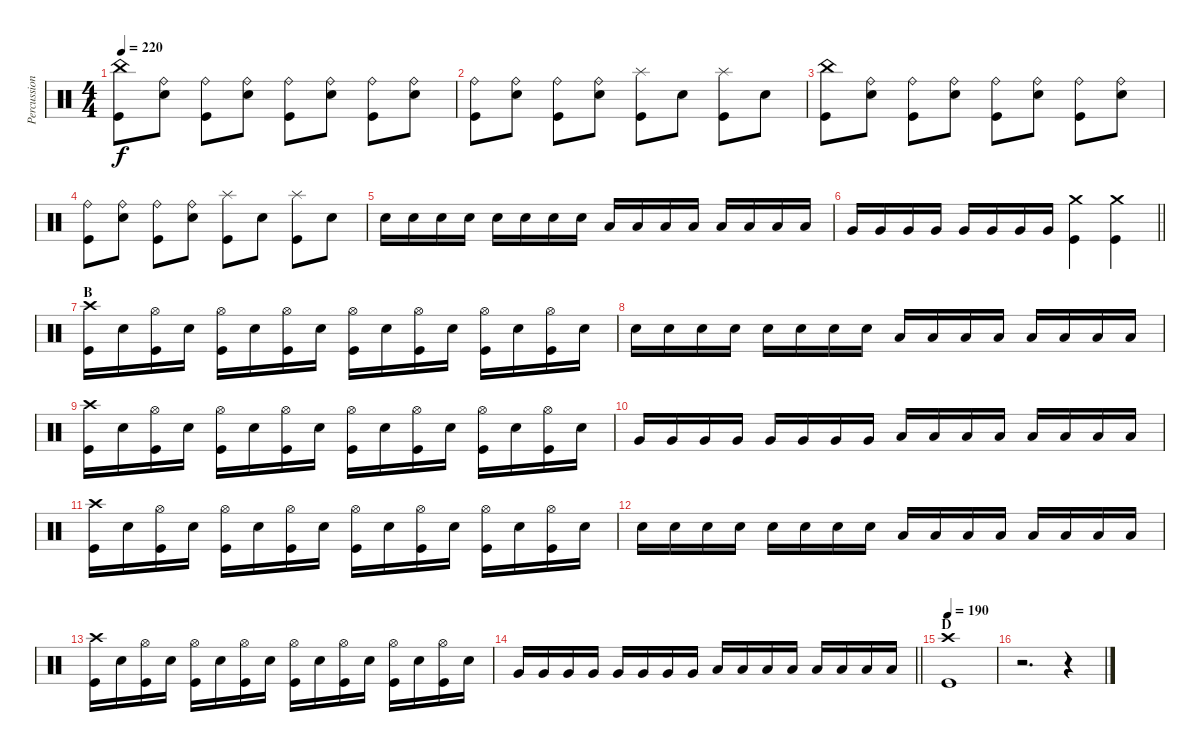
\track ("Percussion" "Percussion") {instrument percussion}
\staff {score}
\articulation defaults
\ts (4 4)
\tempo 220
\clef neutral
\ks c
("China (hit)" "Kick (hit)").8{dy f} ("Ride (bell)" "Snare (hit) 2").8 ("Ride (bell)" "Kick (hit)").8 ("Ride (bell)" "Snare (hit) 2").8 ("Ride (bell)" "Kick (hit)").8 ("Ride (bell)" "Snare (hit) 2").8 ("Ride (bell)" "Kick (hit)").8 ("Ride (bell)" "Snare (hit) 2").8 |
("Ride (bell)" "Kick (hit)").8 ("Ride (bell)" "Snare (hit) 2").8 ("Ride (bell)" "Kick (hit)").8 ("Ride (bell)" "Snare (hit) 2").8 ("Splash (hit)" "Kick (hit)").8 "Snare (hit) 2".8 ("Splash (hit)" "Kick (hit)").8 "Snare (hit) 2".8 |
("China (hit)" "Kick (hit)").8 ("Ride (bell)" "Snare (hit) 2").8 ("Ride (bell)" "Kick (hit)").8 ("Ride (bell)" "Snare (hit) 2").8 ("Ride (bell)" "Kick (hit)").8 ("Ride (bell)" "Snare (hit) 2").8 ("Ride (bell)" "Kick (hit)").8 ("Ride (bell)" "Snare (hit) 2").8 |
("Ride (bell)" "Kick (hit)").8 ("Ride (bell)" "Snare (hit) 2").8 ("Ride (bell)" "Kick (hit)").8 ("Ride (bell)" "Snare (hit) 2").8 ("Splash (hit)" "Kick (hit)").8 "Snare (hit) 2".8 ("Splash (hit)" "Kick (hit)").8 "Snare (hit) 2".8 |
"Snare (hit) 2".16 "Snare (hit) 2".16 "Snare (hit) 2".16 "Snare (hit) 2".16 "Snare (hit) 2".16 "Snare (hit) 2".16 "Snare (hit) 2".16 "Snare (hit) 2".16 "Low Tom (hit)".16 "Low Tom (hit)".16 "Low Tom (hit)".16 "Low Tom (hit)".16 "Low Tom (hit)".16 "Low Tom (hit)".16 "Low Tom (hit)".16 "Low Tom (hit)".16 |
\barLineRight lightlight "Very Low Tom (hit)".16 "Very Low Tom (hit)".16 "Very Low Tom (hit)".16 "Very Low Tom (hit)".16 "Very Low Tom (hit)".16 "Very Low Tom (hit)".16 "Very Low Tom (hit)".16 "Very Low Tom (hit)".16
("Crash medium (hit)" "Kick (hit)").4 ("Crash medium (hit)" "Kick (hit)").4 |
\section ("" "B")
("Crash high (hit)" "Kick (hit)").16 "Snare (hit) 2".16 ("Hi-Hat (open)" "Kick (hit)").16 "Snare (hit) 2".16 ("Hi-Hat (open)" "Kick (hit)").16 "Snare (hit) 2".16 ("Hi-Hat (open)" "Kick (hit)").16 "Snare (hit) 2".16 ("Hi-Hat (open)" "Kick (hit)").16 "Snare (hit) 2".16 ("Hi-Hat (open)" "Kick (hit)").16 "Snare (hit) 2".16 ("Hi-Hat (open)" "Kick (hit)").16 "Snare (hit) 2".16 ("Hi-Hat (open)" "Kick (hit)").16 "Snare (hit) 2".16 |
"Snare (hit) 2".16 "Snare (hit) 2".16 "Snare (hit) 2".16 "Snare (hit) 2".16 "Snare (hit) 2".16 "Snare (hit) 2".16 "Snare (hit) 2".16 "Snare (hit) 2".16 "Low Tom (hit)".16 "Low Tom (hit)".16 "Low Tom (hit)".16 "Low Tom (hit)".16 "Low Tom (hit)".16 "Low Tom (hit)".16 "Low Tom (hit)".16 "Low Tom (hit)".16 |
("Crash high (hit)" "Kick (hit)").16 "Snare (hit) 2".16 ("Hi-Hat (open)" "Kick (hit)").16 "Snare (hit) 2".16 ("Hi-Hat (open)" "Kick (hit)").16 "Snare (hit) 2".16 ("Hi-Hat (open)" "Kick (hit)").16 "Snare (hit) 2".16 ("Hi-Hat (open)" "Kick (hit)").16 "Snare (hit) 2".16 ("Hi-Hat (open)" "Kick (hit)").16 "Snare (hit) 2".16 ("Hi-Hat (open)" "Kick (hit)").16 "Snare (hit) 2".16 ("Hi-Hat (open)" "Kick (hit)").16 "Snare (hit) 2".16 |
"Very Low Tom (hit)".16 "Very Low Tom (hit)".16 "Very Low Tom (hit)".16 "Very Low Tom (hit)".16 "Very Low Tom (hit)".16 "Very Low Tom (hit)".16 "Very Low Tom (hit)".16 "Very Low Tom (hit)".16 "Low Floor Tom (hit)".16 "Low Floor Tom (hit)".16 "Low Floor Tom (hit)".16 "Low Floor Tom (hit)".16 "Low Floor Tom (hit)".16 "Low Floor Tom (hit)".16 "Low Floor Tom (hit)".16 "Low Floor Tom (hit)".16 |
("Crash high (hit)" "Kick (hit)").16 "Snare (hit) 2".16 ("Hi-Hat (open)" "Kick (hit)").16 "Snare (hit) 2".16 ("Hi-Hat (open)" "Kick (hit)").16 "Snare (hit) 2".16 ("Hi-Hat (open)" "Kick (hit)").16 "Snare (hit) 2".16 ("Hi-Hat (open)" "Kick (hit)").16 "Snare (hit) 2".16 ("Hi-Hat (open)" "Kick (hit)").16 "Snare (hit) 2".16 ("Hi-Hat (open)" "Kick (hit)").16 "Snare (hit) 2".16 ("Hi-Hat (open)" "Kick (hit)").16 "Snare (hit) 2".16 |
"Snare (hit) 2".16 "Snare (hit) 2".16 "Snare (hit) 2".16 "Snare (hit) 2".16 "Snare (hit) 2".16 "Snare (hit) 2".16 "Snare (hit) 2".16 "Snare (hit) 2".16 "Low Tom (hit)".16 "Low Tom (hit)".16 "Low Tom (hit)".16 "Low Tom (hit)".16 "Low Tom (hit)".16 "Low Tom (hit)".16 "Low Tom (hit)".16 "Low Tom (hit)".16 |
("Crash high (hit)" "Kick (hit)").16 "Snare (hit) 2".16 ("Hi-Hat (open)" "Kick (hit)").16 "Snare (hit) 2".16 ("Hi-Hat (open)" "Kick (hit)").16 "Snare (hit) 2".16 ("Hi-Hat (open)" "Kick (hit)").16 "Snare (hit) 2".16 ("Hi-Hat (open)" "Kick (hit)").16 "Snare (hit) 2".16 ("Hi-Hat (open)" "Kick (hit)").16 "Snare (hit) 2".16 ("Hi-Hat (open)" "Kick (hit)").16 "Snare (hit) 2".16 ("Hi-Hat (open)" "Kick (hit)").16 "Snare (hit) 2".16 |
\barLineRight lightlight "Very Low Tom (hit)".16 "Very Low Tom (hit)".16 "Very Low Tom (hit)".16 "Very Low Tom (hit)".16 "Very Low Tom (hit)".16 "Very Low Tom (hit)".16 "Very Low Tom (hit)".16 "Very Low Tom (hit)".16 "Low Floor Tom (hit)".16 "Low Floor Tom (hit)".16 "Low Floor Tom (hit)".16 "Low Floor Tom (hit)".16 "Low Floor Tom (hit)".16 "Low Floor Tom (hit)".16 "Low Floor Tom (hit)".16 "Low Floor Tom (hit)".16
|
\section ("" "D")
\tempo 190
("Crash high (hit)" "Kick (hit)").1 |
r.2{d} r.4{volume 0}
